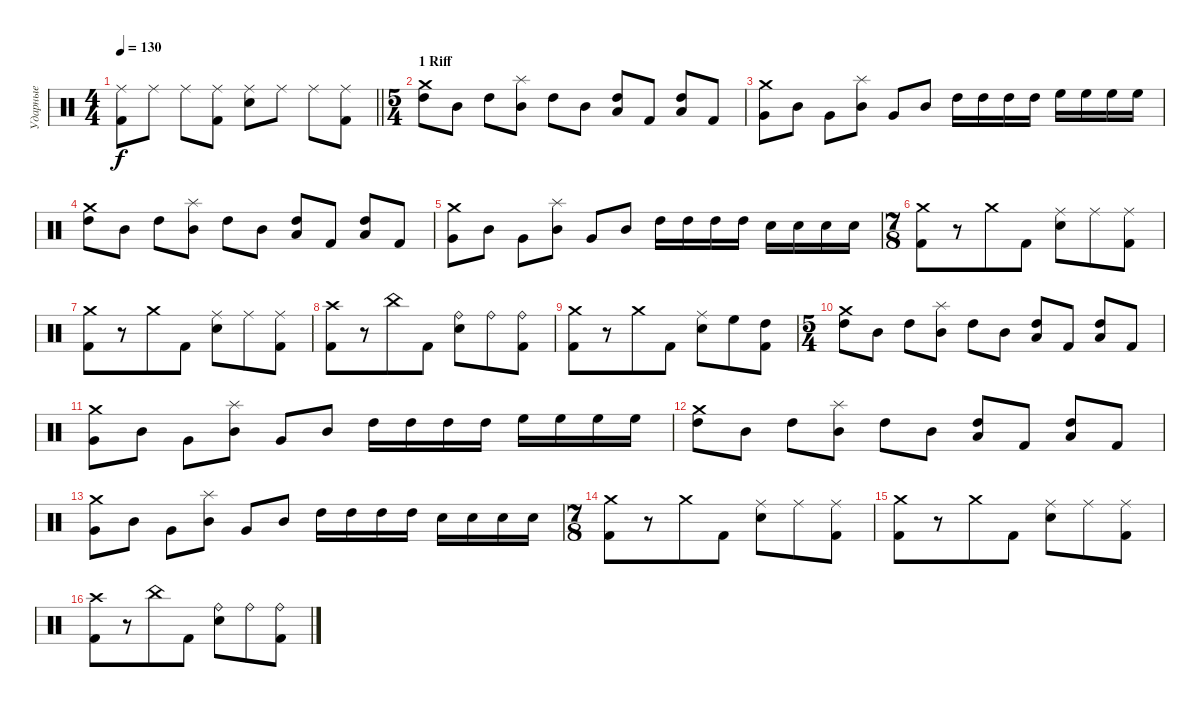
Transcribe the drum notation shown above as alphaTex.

\track ("Ударные" "Ударные") {instrument percussion}
\staff {score}
\articulation defaults
\ts (4 4)
\tempo 130
\clef neutral
\barLineRight lightlight
\ks c
("Ride (middle)" "Kick (hit) 2").8{dy f} "Ride (middle)".8 "Ride (middle)".8 ("Ride (middle)" "Kick (hit) 2").8 ("Ride (middle)" "Electric Snare (hit)").8 "Ride (middle)".8 "Ride (middle)".8 ("Ride (middle)" "Kick (hit) 2").8 |
\ts (5 4)
\section ("" "1 Riff")
("Crash medium (hit)" "High Tom (hit)").8 "Mid Tom (hit)".8 "High Tom (hit)".8 ("Splash (hit)" "Mid Tom (hit)").8 "High Tom (hit)".8 "Mid Tom (hit)".8 ("High Tom (hit)" "Low Tom (hit)").8 "Kick (hit) 2".8 ("High Tom (hit)" "Low Tom (hit)").8 "Kick (hit) 2".8 |
("Crash medium (hit)" "Very Low Tom (hit)").8 "Mid Tom (hit)".8 "Very Low Tom (hit)".8 ("Splash (hit)" "Mid Tom (hit)").8 "Very Low Tom (hit)".8 "Mid Tom (hit)".8 "High Tom (hit)".16 "High Tom (hit)".16 "High Tom (hit)".16 "High Tom (hit)".16 "High Floor Tom (hit)".16 "High Floor Tom (hit)".16 "High Floor Tom (hit)".16 "High Floor Tom (hit)".16 |
("Crash medium (hit)" "High Tom (hit)").8 "Mid Tom (hit)".8 "High Tom (hit)".8 ("Splash (hit)" "Mid Tom (hit)").8 "High Tom (hit)".8 "Mid Tom (hit)".8 ("High Tom (hit)" "Low Tom (hit)").8 "Kick (hit) 2".8 ("High Tom (hit)" "Low Tom (hit)").8 "Kick (hit) 2".8 |
("Crash medium (hit)" "Very Low Tom (hit)").8 "Mid Tom (hit)".8 "Very Low Tom (hit)".8 ("Splash (hit)" "Mid Tom (hit)").8 "Very Low Tom (hit)".8 "Mid Tom (hit)".8 "High Tom (hit)".16 "High Tom (hit)".16 "High Tom (hit)".16 "High Tom (hit)".16 "Electric Snare (hit)".16 "Electric Snare (hit)".16 "Electric Snare (hit)".16 "Electric Snare (hit)".16 |
\ts (7 8)
("Crash medium (hit)" "Kick (hit) 2").8 r.8 "Crash medium (hit)".8 "Kick (hit) 2".8 ("Ride (middle)" "Electric Snare (hit)").8 "Ride (middle)".8 ("Ride (middle)" "Kick (hit) 2").8 |
("Crash medium (hit)" "Kick (hit) 2").8 r.8 "Crash medium (hit)".8 "Kick (hit) 2".8 ("Ride (middle)" "Electric Snare (hit)").8 "Ride (middle)".8 ("Ride (middle)" "Kick (hit) 2").8 |
("Crash high (hit)" "Kick (hit) 2").8 r.8 "China (hit)".8 "Kick (hit) 2".8 ("Ride (bell)" "Electric Snare (hit)").8 "Ride (bell)".8 ("Ride (bell)" "Kick (hit) 2").8 |
("Crash medium (hit)" "Kick (hit) 2").8 r.8 "Crash medium (hit)".8 "Kick (hit) 2".8 ("Ride (middle)" "Electric Snare (hit)").8 "High Floor Tom (hit)".8 ("High Tom (hit)" "Kick (hit) 2").8 |
\ts (5 4)
("Crash medium (hit)" "High Tom (hit)").8 "Mid Tom (hit)".8 "High Tom (hit)".8 ("Splash (hit)" "Mid Tom (hit)").8 "High Tom (hit)".8 "Mid Tom (hit)".8 ("High Tom (hit)" "Low Tom (hit)").8 "Kick (hit) 2".8 ("High Tom (hit)" "Low Tom (hit)").8 "Kick (hit) 2".8 |
("Crash medium (hit)" "Very Low Tom (hit)").8 "Mid Tom (hit)".8 "Very Low Tom (hit)".8 ("Splash (hit)" "Mid Tom (hit)").8 "Very Low Tom (hit)".8 "Mid Tom (hit)".8 "High Tom (hit)".16 "High Tom (hit)".16 "High Tom (hit)".16 "High Tom (hit)".16 "High Floor Tom (hit)".16 "High Floor Tom (hit)".16 "High Floor Tom (hit)".16 "High Floor Tom (hit)".16 |
("Crash medium (hit)" "High Tom (hit)").8 "Mid Tom (hit)".8 "High Tom (hit)".8 ("Splash (hit)" "Mid Tom (hit)").8 "High Tom (hit)".8 "Mid Tom (hit)".8 ("High Tom (hit)" "Low Tom (hit)").8 "Kick (hit) 2".8 ("High Tom (hit)" "Low Tom (hit)").8 "Kick (hit) 2".8 |
("Crash medium (hit)" "Very Low Tom (hit)").8 "Mid Tom (hit)".8 "Very Low Tom (hit)".8 ("Splash (hit)" "Mid Tom (hit)").8 "Very Low Tom (hit)".8 "Mid Tom (hit)".8 "High Tom (hit)".16 "High Tom (hit)".16 "High Tom (hit)".16 "High Tom (hit)".16 "Electric Snare (hit)".16 "Electric Snare (hit)".16 "Electric Snare (hit)".16 "Electric Snare (hit)".16 |
\ts (7 8)
("Crash medium (hit)" "Kick (hit) 2").8 r.8 "Crash medium (hit)".8 "Kick (hit) 2".8 ("Ride (middle)" "Electric Snare (hit)").8 "Ride (middle)".8 ("Ride (middle)" "Kick (hit) 2").8 |
("Crash medium (hit)" "Kick (hit) 2").8 r.8 "Crash medium (hit)".8 "Kick (hit) 2".8 ("Ride (middle)" "Electric Snare (hit)").8 "Ride (middle)".8 ("Ride (middle)" "Kick (hit) 2").8 |
("Crash high (hit)" "Kick (hit) 2").8 r.8 "China (hit)".8 "Kick (hit) 2".8 ("Ride (bell)" "Electric Snare (hit)").8 "Ride (bell)".8 ("Ride (bell)" "Kick (hit) 2").8
